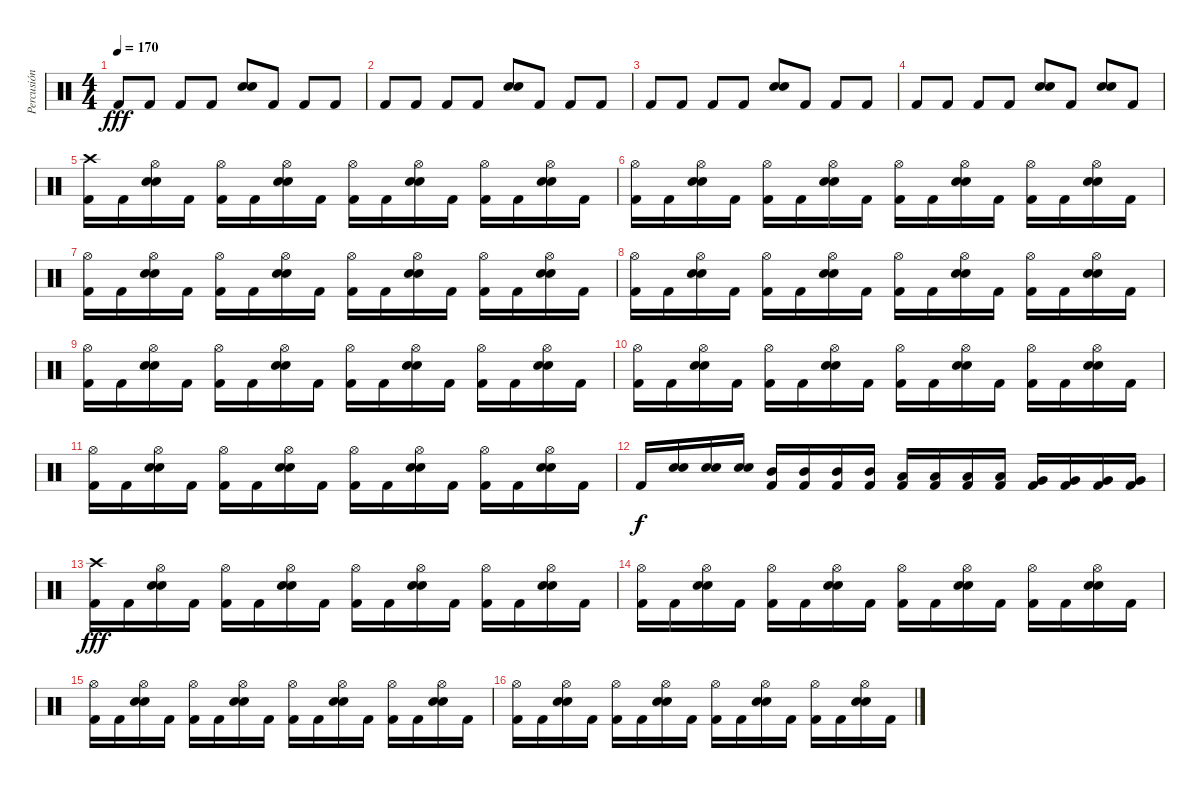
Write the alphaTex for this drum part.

\track ("Percusión" "Percusión") {instrument percussion}
\staff {score}
\articulation defaults
\ts (4 4)
\tempo 170
\clef neutral
\ks c "Kick (hit) 2".8{dy fff} "Kick (hit) 2".8 "Kick (hit) 2".8 "Kick (hit) 2".8
("Snare (hit) 2" "Electric Snare (hit)").8 "Kick (hit) 2".8 "Kick (hit) 2".8 "Kick (hit) 2".8 |
"Kick (hit) 2".8 "Kick (hit) 2".8 "Kick (hit) 2".8 "Kick (hit) 2".8 ("Snare (hit) 2" "Electric Snare (hit)").8 "Kick (hit) 2".8 "Kick (hit) 2".8 "Kick (hit) 2".8 |
"Kick (hit) 2".8 "Kick (hit) 2".8 "Kick (hit) 2".8 "Kick (hit) 2".8 ("Snare (hit) 2" "Electric Snare (hit)").8 "Kick (hit) 2".8 "Kick (hit) 2".8 "Kick (hit) 2".8 |
"Kick (hit) 2".8 "Kick (hit) 2".8 "Kick (hit) 2".8 "Kick (hit) 2".8 ("Snare (hit) 2" "Electric Snare (hit)").8 "Kick (hit) 2".8 ("Snare (hit) 2" "Electric Snare (hit)").8 "Kick (hit) 2".8 |
("Kick (hit) 2" "Crash high (hit)").16 "Kick (hit) 2".16 ("Snare (hit) 2" "Electric Snare (hit)" "Hi-Hat (open)").16 "Kick (hit) 2".16 ("Kick (hit) 2" "Hi-Hat (open)").16 "Kick (hit) 2".16 ("Snare (hit) 2" "Electric Snare (hit)" "Hi-Hat (open)").16 "Kick (hit) 2".16 ("Kick (hit) 2" "Hi-Hat (open)").16 "Kick (hit) 2".16 ("Snare (hit) 2" "Electric Snare (hit)" "Hi-Hat (open)").16 "Kick (hit) 2".16 ("Kick (hit) 2" "Hi-Hat (open)").16 "Kick (hit) 2".16 ("Snare (hit) 2" "Electric Snare (hit)" "Hi-Hat (open)").16 "Kick (hit) 2".16 |
("Kick (hit) 2" "Hi-Hat (open)").16 "Kick (hit) 2".16 ("Snare (hit) 2" "Electric Snare (hit)" "Hi-Hat (open)").16 "Kick (hit) 2".16 ("Kick (hit) 2" "Hi-Hat (open)").16 "Kick (hit) 2".16 ("Snare (hit) 2" "Electric Snare (hit)" "Hi-Hat (open)").16 "Kick (hit) 2".16 ("Kick (hit) 2" "Hi-Hat (open)").16 "Kick (hit) 2".16 ("Snare (hit) 2" "Electric Snare (hit)" "Hi-Hat (open)").16 "Kick (hit) 2".16 ("Kick (hit) 2" "Hi-Hat (open)").16 "Kick (hit) 2".16 ("Snare (hit) 2" "Electric Snare (hit)" "Hi-Hat (open)").16 "Kick (hit) 2".16 |
("Kick (hit) 2" "Hi-Hat (open)").16 "Kick (hit) 2".16 ("Snare (hit) 2" "Electric Snare (hit)" "Hi-Hat (open)").16 "Kick (hit) 2".16 ("Kick (hit) 2" "Hi-Hat (open)").16 "Kick (hit) 2".16 ("Snare (hit) 2" "Electric Snare (hit)" "Hi-Hat (open)").16 "Kick (hit) 2".16 ("Kick (hit) 2" "Hi-Hat (open)").16 "Kick (hit) 2".16 ("Snare (hit) 2" "Electric Snare (hit)" "Hi-Hat (open)").16 "Kick (hit) 2".16 ("Kick (hit) 2" "Hi-Hat (open)").16 "Kick (hit) 2".16 ("Snare (hit) 2" "Electric Snare (hit)" "Hi-Hat (open)").16 "Kick (hit) 2".16 |
("Kick (hit) 2" "Hi-Hat (open)").16 "Kick (hit) 2".16 ("Snare (hit) 2" "Electric Snare (hit)" "Hi-Hat (open)").16 "Kick (hit) 2".16 ("Kick (hit) 2" "Hi-Hat (open)").16 "Kick (hit) 2".16 ("Snare (hit) 2" "Electric Snare (hit)" "Hi-Hat (open)").16 "Kick (hit) 2".16 ("Kick (hit) 2" "Hi-Hat (open)").16 "Kick (hit) 2".16 ("Snare (hit) 2" "Electric Snare (hit)" "Hi-Hat (open)").16 "Kick (hit) 2".16 ("Kick (hit) 2" "Hi-Hat (open)").16 "Kick (hit) 2".16 ("Snare (hit) 2" "Electric Snare (hit)" "Hi-Hat (open)").16 "Kick (hit) 2".16 |
("Kick (hit) 2" "Hi-Hat (open)").16 "Kick (hit) 2".16 ("Snare (hit) 2" "Electric Snare (hit)" "Hi-Hat (open)").16 "Kick (hit) 2".16 ("Kick (hit) 2" "Hi-Hat (open)").16 "Kick (hit) 2".16 ("Snare (hit) 2" "Electric Snare (hit)" "Hi-Hat (open)").16 "Kick (hit) 2".16 ("Kick (hit) 2" "Hi-Hat (open)").16 "Kick (hit) 2".16 ("Snare (hit) 2" "Electric Snare (hit)" "Hi-Hat (open)").16 "Kick (hit) 2".16 ("Kick (hit) 2" "Hi-Hat (open)").16 "Kick (hit) 2".16 ("Snare (hit) 2" "Electric Snare (hit)" "Hi-Hat (open)").16 "Kick (hit) 2".16 |
("Kick (hit) 2" "Hi-Hat (open)").16 "Kick (hit) 2".16 ("Snare (hit) 2" "Electric Snare (hit)" "Hi-Hat (open)").16 "Kick (hit) 2".16 ("Kick (hit) 2" "Hi-Hat (open)").16 "Kick (hit) 2".16 ("Snare (hit) 2" "Electric Snare (hit)" "Hi-Hat (open)").16 "Kick (hit) 2".16 ("Kick (hit) 2" "Hi-Hat (open)").16 "Kick (hit) 2".16 ("Snare (hit) 2" "Electric Snare (hit)" "Hi-Hat (open)").16 "Kick (hit) 2".16 ("Kick (hit) 2" "Hi-Hat (open)").16 "Kick (hit) 2".16 ("Snare (hit) 2" "Electric Snare (hit)" "Hi-Hat (open)").16 "Kick (hit) 2".16 |
("Kick (hit) 2" "Hi-Hat (open)").16 "Kick (hit) 2".16 ("Snare (hit) 2" "Electric Snare (hit)" "Hi-Hat (open)").16 "Kick (hit) 2".16 ("Kick (hit) 2" "Hi-Hat (open)").16 "Kick (hit) 2".16 ("Snare (hit) 2" "Electric Snare (hit)" "Hi-Hat (open)").16 "Kick (hit) 2".16 ("Kick (hit) 2" "Hi-Hat (open)").16 "Kick (hit) 2".16 ("Snare (hit) 2" "Electric Snare (hit)" "Hi-Hat (open)").16 "Kick (hit) 2".16 ("Kick (hit) 2" "Hi-Hat (open)").16 "Kick (hit) 2".16 ("Snare (hit) 2" "Electric Snare (hit)" "Hi-Hat (open)").16 "Kick (hit) 2".16 |
"Kick (hit) 2".16{dy f} ("Snare (hit) 2" "Electric Snare (hit)").16 ("Snare (hit) 2" "Electric Snare (hit)").16 ("Electric Snare (hit)" "Snare (hit) 2").16 ("Mid Tom (hit)" "Kick (hit) 2").16 ("Mid Tom (hit)" "Kick (hit) 2").16 ("Mid Tom (hit)" "Kick (hit) 2").16 ("Mid Tom (hit)" "Kick (hit) 2").16 ("Low Tom (hit)" "Kick (hit) 2").16 ("Low Tom (hit)" "Kick (hit) 2").16 ("Low Tom (hit)" "Kick (hit) 2").16 ("Low Tom (hit)" "Kick (hit) 2").16 ("Very Low Tom (hit)" "Kick (hit) 2").16 ("Very Low Tom (hit)" "Kick (hit) 2").16 ("Very Low Tom (hit)" "Kick (hit) 2").16 ("Very Low Tom (hit)" "Kick (hit) 2").16 |
("Kick (hit) 2" "Crash high (hit)").16{dy fff} "Kick (hit) 2".16 ("Snare (hit) 2" "Electric Snare (hit)" "Hi-Hat (open)").16 "Kick (hit) 2".16 ("Kick (hit) 2" "Hi-Hat (open)").16 "Kick (hit) 2".16 ("Snare (hit) 2" "Electric Snare (hit)" "Hi-Hat (open)").16 "Kick (hit) 2".16 ("Kick (hit) 2" "Hi-Hat (open)").16 "Kick (hit) 2".16 ("Snare (hit) 2" "Electric Snare (hit)" "Hi-Hat (open)").16 "Kick (hit) 2".16 ("Kick (hit) 2" "Hi-Hat (open)").16 "Kick (hit) 2".16 ("Snare (hit) 2" "Electric Snare (hit)" "Hi-Hat (open)").16 "Kick (hit) 2".16 |
("Kick (hit) 2" "Hi-Hat (open)").16 "Kick (hit) 2".16 ("Snare (hit) 2" "Electric Snare (hit)" "Hi-Hat (open)").16 "Kick (hit) 2".16 ("Kick (hit) 2" "Hi-Hat (open)").16 "Kick (hit) 2".16 ("Snare (hit) 2" "Electric Snare (hit)" "Hi-Hat (open)").16 "Kick (hit) 2".16 ("Kick (hit) 2" "Hi-Hat (open)").16 "Kick (hit) 2".16 ("Snare (hit) 2" "Electric Snare (hit)" "Hi-Hat (open)").16 "Kick (hit) 2".16 ("Kick (hit) 2" "Hi-Hat (open)").16 "Kick (hit) 2".16 ("Snare (hit) 2" "Electric Snare (hit)" "Hi-Hat (open)").16 "Kick (hit) 2".16 |
("Kick (hit) 2" "Hi-Hat (open)").16 "Kick (hit) 2".16 ("Snare (hit) 2" "Electric Snare (hit)" "Hi-Hat (open)").16 "Kick (hit) 2".16 ("Kick (hit) 2" "Hi-Hat (open)").16 "Kick (hit) 2".16 ("Snare (hit) 2" "Electric Snare (hit)" "Hi-Hat (open)").16 "Kick (hit) 2".16 ("Kick (hit) 2" "Hi-Hat (open)").16 "Kick (hit) 2".16 ("Snare (hit) 2" "Electric Snare (hit)" "Hi-Hat (open)").16 "Kick (hit) 2".16 ("Kick (hit) 2" "Hi-Hat (open)").16 "Kick (hit) 2".16 ("Snare (hit) 2" "Electric Snare (hit)" "Hi-Hat (open)").16 "Kick (hit) 2".16 |
("Kick (hit) 2" "Hi-Hat (open)").16 "Kick (hit) 2".16 ("Snare (hit) 2" "Electric Snare (hit)" "Hi-Hat (open)").16 "Kick (hit) 2".16 ("Kick (hit) 2" "Hi-Hat (open)").16 "Kick (hit) 2".16 ("Snare (hit) 2" "Electric Snare (hit)" "Hi-Hat (open)").16 "Kick (hit) 2".16 ("Kick (hit) 2" "Hi-Hat (open)").16 "Kick (hit) 2".16 ("Snare (hit) 2" "Electric Snare (hit)" "Hi-Hat (open)").16 "Kick (hit) 2".16 ("Kick (hit) 2" "Hi-Hat (open)").16 "Kick (hit) 2".16 ("Snare (hit) 2" "Electric Snare (hit)" "Hi-Hat (open)").16 "Kick (hit) 2".16
